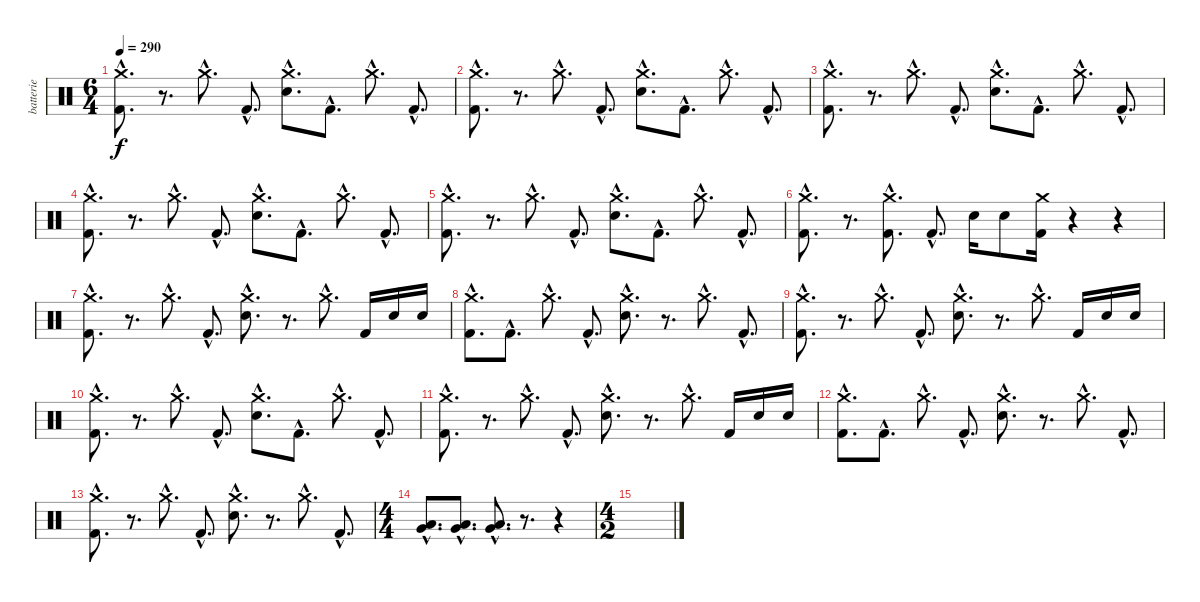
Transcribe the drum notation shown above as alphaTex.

\track ("batterie" "batterie") {instrument percussion}
\staff {score}
\articulation defaults
\ts (6 4)
\tempo 290
\clef neutral
\ks c
("Crash medium (hit)"{hac} "Kick (hit) 2"{hac}).8{d dy f} r.8{d} "Crash medium (hit)"{hac}.8{d} "Kick (hit) 2"{hac}.8{d} ("Crash medium (hit)"{hac} "Electric Snare (hit)"{hac}).8{d} "Kick (hit) 2"{hac}.8{d} "Crash medium (hit)"{hac}.8{d} "Kick (hit) 2"{hac}.8{d} |
("Crash medium (hit)"{hac} "Kick (hit) 2"{hac}).8{d} r.8{d} "Crash medium (hit)"{hac}.8{d} "Kick (hit) 2"{hac}.8{d} ("Crash medium (hit)"{hac} "Electric Snare (hit)"{hac}).8{d} "Kick (hit) 2"{hac}.8{d} "Crash medium (hit)"{hac}.8{d} "Kick (hit) 2"{hac}.8{d} |
("Crash medium (hit)"{hac} "Kick (hit) 2"{hac}).8{d} r.8{d} "Crash medium (hit)"{hac}.8{d} "Kick (hit) 2"{hac}.8{d} ("Crash medium (hit)"{hac} "Electric Snare (hit)"{hac}).8{d} "Kick (hit) 2"{hac}.8{d} "Crash medium (hit)"{hac}.8{d} "Kick (hit) 2"{hac}.8{d} |
("Crash medium (hit)"{hac} "Kick (hit) 2"{hac}).8{d} r.8{d} "Crash medium (hit)"{hac}.8{d} "Kick (hit) 2"{hac}.8{d} ("Crash medium (hit)"{hac} "Electric Snare (hit)"{hac}).8{d} "Kick (hit) 2"{hac}.8{d} "Crash medium (hit)"{hac}.8{d} "Kick (hit) 2"{hac}.8{d} |
("Crash medium (hit)"{hac} "Kick (hit) 2"{hac}).8{d} r.8{d} "Crash medium (hit)"{hac}.8{d} "Kick (hit) 2"{hac}.8{d} ("Crash medium (hit)"{hac} "Electric Snare (hit)"{hac}).8{d} "Kick (hit) 2"{hac}.8{d} "Crash medium (hit)"{hac}.8{d} "Kick (hit) 2"{hac}.8{d} |
("Crash medium (hit)"{hac} "Kick (hit) 2"{hac}).8{d} r.8{d} ("Crash medium (hit)"{hac} "Kick (hit) 2"{hac}).8{d} "Kick (hit) 2"{hac}.8{d} "Electric Snare (hit)".16 "Electric Snare (hit)".8 ("Crash medium (hit)" "Kick (hit) 2").16 r.4 r.4 |
("Crash medium (hit)"{hac} "Kick (hit) 2"{hac}).8{d} r.8{d} "Crash medium (hit)"{hac}.8{d} "Kick (hit) 2"{hac}.8{d} ("Crash medium (hit)"{hac} "Electric Snare (hit)"{hac}).8{d} r.8{d} "Crash medium (hit)"{hac}.8{d} "Kick (hit) 2".16 "Electric Snare (hit)".16 "Electric Snare (hit)".16 |
("Crash medium (hit)"{hac} "Kick (hit) 2"{hac}).8{d} "Kick (hit) 2"{hac}.8{d} "Crash medium (hit)"{hac}.8{d} "Kick (hit) 2"{hac}.8{d} ("Crash medium (hit)"{hac} "Electric Snare (hit)"{hac}).8{d} r.8{d} "Crash medium (hit)"{hac}.8{d} "Kick (hit) 2"{hac}.8{d} |
("Crash medium (hit)"{hac} "Kick (hit) 2"{hac}).8{d} r.8{d} "Crash medium (hit)"{hac}.8{d} "Kick (hit) 2"{hac}.8{d} ("Crash medium (hit)"{hac} "Electric Snare (hit)"{hac}).8{d} r.8{d} "Crash medium (hit)"{hac}.8{d} "Kick (hit) 2".16 "Electric Snare (hit)".16 "Electric Snare (hit)".16 |
("Crash medium (hit)"{hac} "Kick (hit) 2"{hac}).8{d} r.8{d} "Crash medium (hit)"{hac}.8{d} "Kick (hit) 2"{hac}.8{d} ("Crash medium (hit)"{hac} "Electric Snare (hit)"{hac}).8{d} "Kick (hit) 2"{hac}.8{d} "Crash medium (hit)"{hac}.8{d} "Kick (hit) 2"{hac}.8{d} |
("Crash medium (hit)"{hac} "Kick (hit) 2"{hac}).8{d} r.8{d} "Crash medium (hit)"{hac}.8{d} "Kick (hit) 2"{hac}.8{d} ("Crash medium (hit)"{hac} "Electric Snare (hit)"{hac}).8{d} r.8{d} "Crash medium (hit)"{hac}.8{d} "Kick (hit) 2".16 "Electric Snare (hit)".16 "Electric Snare (hit)".16 |
("Crash medium (hit)"{hac} "Kick (hit) 2"{hac}).8{d} "Kick (hit) 2"{hac}.8{d} "Crash medium (hit)"{hac}.8{d} "Kick (hit) 2"{hac}.8{d} ("Crash medium (hit)"{hac} "Electric Snare (hit)"{hac}).8{d} r.8{d} "Crash medium (hit)"{hac}.8{d} "Kick (hit) 2"{hac}.8{d} |
("Crash medium (hit)"{hac} "Kick (hit) 2"{hac}).8{d} r.8{d} "Crash medium (hit)"{hac}.8{d} "Kick (hit) 2"{hac}.8{d} ("Crash medium (hit)"{hac} "Electric Snare (hit)"{hac}).8{d} r.8{d} "Crash medium (hit)"{hac}.8{d} "Kick (hit) 2"{hac}.8{d} |
\ts (4 4)
("Low Tom (hit)"{hac} "Very Low Tom (hit)"{hac}).8{d} ("Low Tom (hit)"{hac} "Very Low Tom (hit)"{hac}).8{d} ("Low Tom (hit)"{hac} "Very Low Tom (hit)"{hac}).8{d} r.8{d} r.4 |
\ts (4 2)
